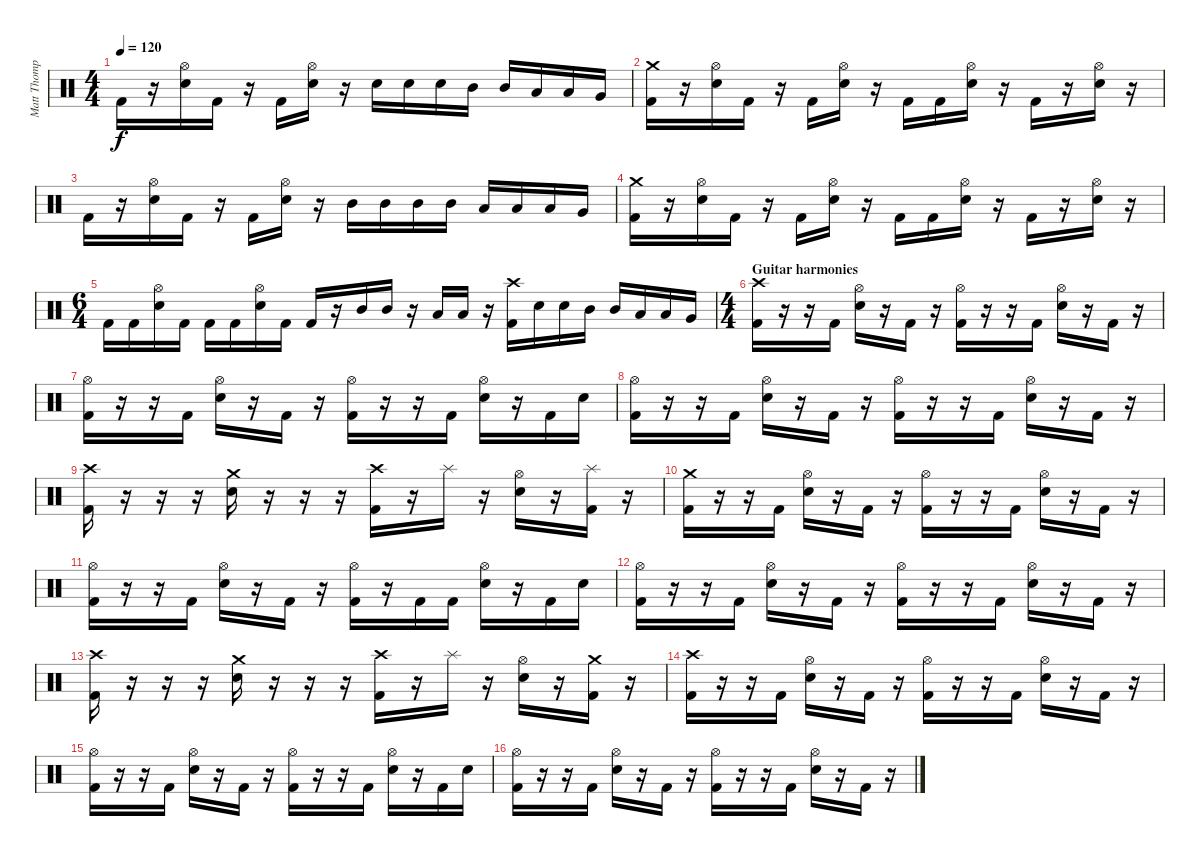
\track ("Matt Thompson" "Matt Thomp") {instrument percussion}
\staff {score}
\articulation defaults
\ts (4 4)
\tempo 120
\clef neutral
\ks c "Kick (hit) 2".16{dy f}
r.16 ("Hi-Hat (open)" "Snare (hit) 2").16 "Kick (hit) 2".16 r.16 "Kick (hit) 2".16 ("Hi-Hat (open)" "Snare (hit) 2").16 r.16 "Snare (hit) 2".16 "Snare (hit) 2".16 "Snare (hit) 2".16 "Mid Tom (hit)".16 "Mid Tom (hit)".16 "Low Tom (hit)".16 "Low Tom (hit)".16 "Very Low Tom (hit)".16 |
("Crash medium (hit)" "Kick (hit) 2").16 r.16 ("Hi-Hat (open)" "Snare (hit) 2").16 "Kick (hit) 2".16 r.16 "Kick (hit) 2".16 ("Hi-Hat (open)" "Snare (hit) 2").16 r.16 "Kick (hit) 2".16 "Kick (hit) 2".16 ("Hi-Hat (open)" "Snare (hit) 2").16 r.16 "Kick (hit) 2".16 r.16 ("Hi-Hat (open)" "Snare (hit) 2").16 r.16 |
"Kick (hit) 2".16 r.16 ("Hi-Hat (open)" "Snare (hit) 2").16 "Kick (hit) 2".16 r.16 "Kick (hit) 2".16 ("Hi-Hat (open)" "Snare (hit) 2").16 r.16 "Mid Tom (hit)".16 "Mid Tom (hit)".16 "Mid Tom (hit)".16 "Mid Tom (hit)".16 "Low Tom (hit)".16 "Low Tom (hit)".16 "Low Tom (hit)".16 "Very Low Tom (hit)".16 |
("Crash medium (hit)" "Kick (hit) 2").16 r.16 ("Hi-Hat (open)" "Snare (hit) 2").16 "Kick (hit) 2".16 r.16 "Kick (hit) 2".16 ("Hi-Hat (open)" "Snare (hit) 2").16 r.16 "Kick (hit) 2".16 "Kick (hit) 2".16 ("Hi-Hat (open)" "Snare (hit) 2").16 r.16 "Kick (hit) 2".16 r.16 ("Hi-Hat (open)" "Snare (hit) 2").16 r.16 |
\ts (6 4)
"Kick (hit) 2".16 "Kick (hit) 2".16 ("Hi-Hat (open)" "Snare (hit) 2").16 "Kick (hit) 2".16 "Kick (hit) 2".16 "Kick (hit) 2".16 ("Hi-Hat (open)" "Snare (hit) 2").16 "Kick (hit) 2".16 "Kick (hit) 2".16 r.16 "Mid Tom (hit)".16 "Mid Tom (hit)".16 r.16 "Low Tom (hit)".16 "Low Tom (hit)".16 r.16 ("Crash high (hit)" "Kick (hit) 2").16 "Snare (hit) 2".16 "Snare (hit) 2".16 "Mid Tom (hit)".16 "Mid Tom (hit)".16 "Low Tom (hit)".16 "Low Tom (hit)".16 "Very Low Tom (hit)".16 |
\ts (4 4)
\section ("" "Guitar harmonies")
("Crash high (hit)" "Kick (hit) 2").16 r.16 r.16 "Kick (hit) 2".16 ("Hi-Hat (open)" "Snare (hit) 2").16 r.16 "Kick (hit) 2".16 r.16 ("Hi-Hat (open)" "Kick (hit) 2").16 r.16 r.16 "Kick (hit) 2".16 ("Hi-Hat (open)" "Snare (hit) 2").16 r.16 "Kick (hit) 2".16 r.16 |
("Hi-Hat (open)" "Kick (hit) 2").16 r.16 r.16 "Kick (hit) 2".16 ("Hi-Hat (open)" "Snare (hit) 2").16 r.16 "Kick (hit) 2".16 r.16 ("Hi-Hat (open)" "Kick (hit) 2").16 r.16 r.16 "Kick (hit) 2".16 ("Hi-Hat (open)" "Snare (hit) 2").16 r.16 "Kick (hit) 2".16 "Snare (hit) 2".16 |
("Hi-Hat (open)" "Kick (hit) 2").16 r.16 r.16 "Kick (hit) 2".16 ("Hi-Hat (open)" "Snare (hit) 2").16 r.16 "Kick (hit) 2".16 r.16 ("Hi-Hat (open)" "Kick (hit) 2").16 r.16 r.16 "Kick (hit) 2".16 ("Hi-Hat (open)" "Snare (hit) 2").16 r.16 "Kick (hit) 2".16 r.16 |
("Crash high (hit)" "Kick (hit) 2").16 r.16 r.16 r.16 ("Crash medium (hit)" "Snare (hit) 2").16 r.16 r.16 r.16 ("Crash high (hit)" "Kick (hit) 2").16 r.16 "Splash (hit)".16 r.16 ("Hi-Hat (open)" "Snare (hit) 2").16 r.16 ("Splash (hit)" "Kick (hit) 2").16 r.16 |
("Crash medium (hit)" "Kick (hit) 2").16 r.16 r.16 "Kick (hit) 2".16 ("Hi-Hat (open)" "Snare (hit) 2").16 r.16 "Kick (hit) 2".16 r.16 ("Hi-Hat (open)" "Kick (hit) 2").16 r.16 r.16 "Kick (hit) 2".16 ("Hi-Hat (open)" "Snare (hit) 2").16 r.16 "Kick (hit) 2".16 r.16 |
("Hi-Hat (open)" "Kick (hit) 2").16 r.16 r.16 "Kick (hit) 2".16 ("Hi-Hat (open)" "Snare (hit) 2").16 r.16 "Kick (hit) 2".16 r.16 ("Hi-Hat (open)" "Kick (hit) 2").16 r.16 "Kick (hit) 2".16 "Kick (hit) 2".16 ("Hi-Hat (open)" "Snare (hit) 2").16 r.16 "Kick (hit) 2".16 "Snare (hit) 2".16 |
("Hi-Hat (open)" "Kick (hit) 2").16 r.16 r.16 "Kick (hit) 2".16 ("Hi-Hat (open)" "Snare (hit) 2").16 r.16 "Kick (hit) 2".16 r.16 ("Hi-Hat (open)" "Kick (hit) 2").16 r.16 r.16 "Kick (hit) 2".16 ("Hi-Hat (open)" "Snare (hit) 2").16 r.16 "Kick (hit) 2".16 r.16 |
("Crash high (hit)" "Kick (hit) 2").16 r.16 r.16 r.16 ("Crash medium (hit)" "Snare (hit) 2").16 r.16 r.16 r.16 ("Crash high (hit)" "Kick (hit) 2").16 r.16 "Splash (hit)".16 r.16 ("Hi-Hat (open)" "Snare (hit) 2").16 r.16 ("Crash medium (hit)" "Kick (hit) 2").16 r.16 |
("Crash high (hit)" "Kick (hit) 2").16 r.16 r.16 "Kick (hit) 2".16 ("Hi-Hat (open)" "Snare (hit) 2").16 r.16 "Kick (hit) 2".16 r.16 ("Hi-Hat (open)" "Kick (hit) 2").16 r.16 r.16 "Kick (hit) 2".16 ("Hi-Hat (open)" "Snare (hit) 2").16 r.16 "Kick (hit) 2".16 r.16 |
("Hi-Hat (open)" "Kick (hit) 2").16 r.16 r.16 "Kick (hit) 2".16 ("Hi-Hat (open)" "Snare (hit) 2").16 r.16 "Kick (hit) 2".16 r.16 ("Hi-Hat (open)" "Kick (hit) 2").16 r.16 r.16 "Kick (hit) 2".16 ("Hi-Hat (open)" "Snare (hit) 2").16 r.16 "Kick (hit) 2".16 "Snare (hit) 2".16 |
("Hi-Hat (open)" "Kick (hit) 2").16 r.16 r.16 "Kick (hit) 2".16 ("Hi-Hat (open)" "Snare (hit) 2").16 r.16 "Kick (hit) 2".16 r.16 ("Hi-Hat (open)" "Kick (hit) 2").16 r.16 r.16 "Kick (hit) 2".16 ("Hi-Hat (open)" "Snare (hit) 2").16 r.16 "Kick (hit) 2".16 r.16
